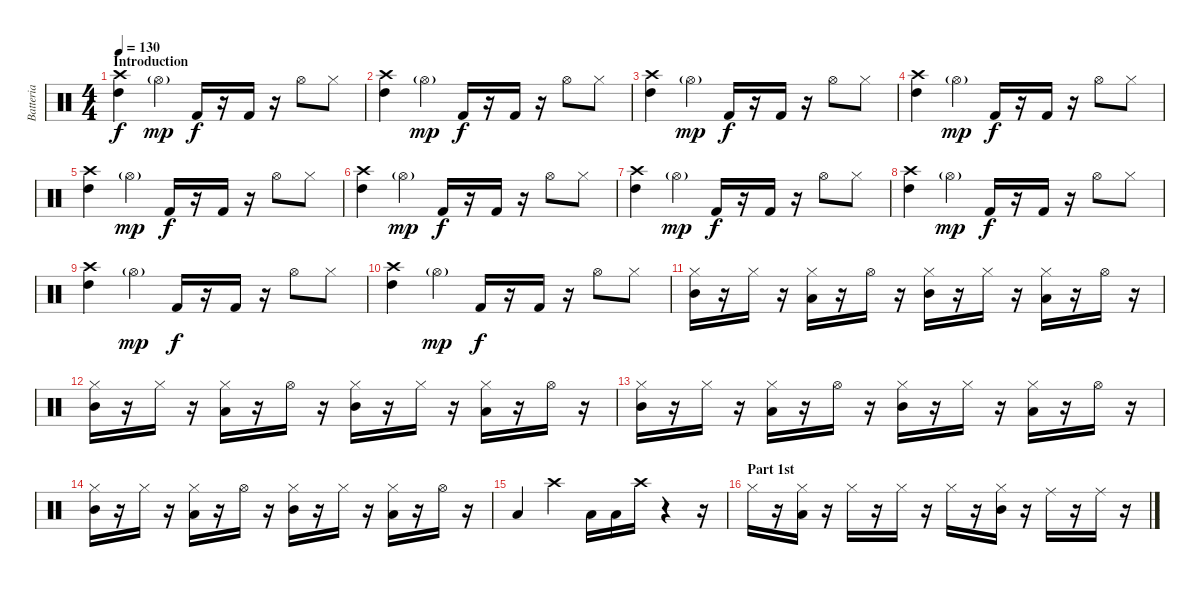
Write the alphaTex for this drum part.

\track ("Batteria" "Batteria") {instrument percussion}
\staff {score}
\articulation defaults
\ts (4 4)
\section ("" "Introduction")
\tempo 130
\clef neutral
\ks c
("Crash high (hit)" "High Tom (hit)").4{dy f} "Hi-Hat (open)"{g}.4{dy mp} "Kick (hit) 2".16{dy f} r.16 "Kick (hit) 2".16 r.16 "Hi-Hat (open)".8 "Hi-Hat (closed)".8 |
("Crash high (hit)" "High Tom (hit)").4 "Hi-Hat (open)"{g}.4{dy mp} "Kick (hit) 2".16{dy f} r.16 "Kick (hit) 2".16 r.16 "Hi-Hat (open)".8 "Hi-Hat (closed)".8 |
("Crash high (hit)" "High Tom (hit)").4 "Hi-Hat (open)"{g}.4{dy mp} "Kick (hit) 2".16{dy f} r.16 "Kick (hit) 2".16 r.16 "Hi-Hat (open)".8 "Hi-Hat (closed)".8 |
("Crash high (hit)" "High Tom (hit)").4 "Hi-Hat (open)"{g}.4{dy mp} "Kick (hit) 2".16{dy f} r.16 "Kick (hit) 2".16 r.16 "Hi-Hat (open)".8 "Hi-Hat (closed)".8 |
("Crash high (hit)" "High Tom (hit)").4 "Hi-Hat (open)"{g}.4{dy mp} "Kick (hit) 2".16{dy f} r.16 "Kick (hit) 2".16 r.16 "Hi-Hat (open)".8 "Hi-Hat (closed)".8 |
("Crash high (hit)" "High Tom (hit)").4 "Hi-Hat (open)"{g}.4{dy mp} "Kick (hit) 2".16{dy f} r.16 "Kick (hit) 2".16 r.16 "Hi-Hat (open)".8 "Hi-Hat (closed)".8 |
("Crash high (hit)" "High Tom (hit)").4 "Hi-Hat (open)"{g}.4{dy mp} "Kick (hit) 2".16{dy f} r.16 "Kick (hit) 2".16 r.16 "Hi-Hat (open)".8 "Hi-Hat (closed)".8 |
("Crash high (hit)" "High Tom (hit)").4 "Hi-Hat (open)"{g}.4{dy mp} "Kick (hit) 2".16{dy f} r.16 "Kick (hit) 2".16 r.16 "Hi-Hat (open)".8 "Hi-Hat (closed)".8 |
("Crash high (hit)" "High Tom (hit)").4 "Hi-Hat (open)"{g}.4{dy mp} "Kick (hit) 2".16{dy f} r.16 "Kick (hit) 2".16 r.16 "Hi-Hat (open)".8 "Hi-Hat (closed)".8 |
("Crash high (hit)" "High Tom (hit)").4 "Hi-Hat (open)"{g}.4{dy mp} "Kick (hit) 2".16{dy f} r.16 "Kick (hit) 2".16 r.16 "Hi-Hat (open)".8 "Hi-Hat (closed)".8 |
("Hi-Hat (closed)" "Mid Tom (hit)").16 r.16 "Hi-Hat (closed)".16 r.16 ("Hi-Hat (closed)" "Low Tom (hit)").16 r.16 "Hi-Hat (open)".16 r.16 ("Hi-Hat (closed)" "Mid Tom (hit)").16 r.16 "Hi-Hat (closed)".16 r.16 ("Hi-Hat (closed)" "Low Tom (hit)").16 r.16 "Hi-Hat (open)".16 r.16 |
("Hi-Hat (closed)" "Mid Tom (hit)").16 r.16 "Hi-Hat (closed)".16 r.16 ("Hi-Hat (closed)" "Low Tom (hit)").16 r.16 "Hi-Hat (open)".16 r.16 ("Hi-Hat (closed)" "Mid Tom (hit)").16 r.16 "Hi-Hat (closed)".16 r.16 ("Hi-Hat (closed)" "Low Tom (hit)").16 r.16 "Hi-Hat (open)".16 r.16 |
("Hi-Hat (closed)" "Mid Tom (hit)").16 r.16 "Hi-Hat (closed)".16 r.16 ("Hi-Hat (closed)" "Low Tom (hit)").16 r.16 "Hi-Hat (open)".16 r.16 ("Hi-Hat (closed)" "Mid Tom (hit)").16 r.16 "Hi-Hat (closed)".16 r.16 ("Hi-Hat (closed)" "Low Tom (hit)").16 r.16 "Hi-Hat (open)".16 r.16 |
("Hi-Hat (closed)" "Mid Tom (hit)").16 r.16 "Hi-Hat (closed)".16 r.16 ("Hi-Hat (closed)" "Low Tom (hit)").16 r.16 "Hi-Hat (open)".16 r.16 ("Hi-Hat (closed)" "Mid Tom (hit)").16 r.16 "Hi-Hat (closed)".16 r.16 ("Hi-Hat (closed)" "Low Tom (hit)").16 r.16 "Hi-Hat (open)".16 r.16 |
"Low Tom (hit)".4 "Crash high (hit)".4 "Low Tom (hit)".16 "Low Tom (hit)".16 "Crash high (hit)".16 r.4 r.16 |
\section ("" "Part 1st")
"Hi-Hat (closed)".16 r.16 ("Hi-Hat (closed)" "Low Tom (hit)").16 r.16 "Hi-Hat (closed)".16 r.16 "Hi-Hat (closed)".16 r.16 "Hi-Hat (closed)".16 r.16 ("Hi-Hat (closed)" "Mid Tom (hit)").16 r.16 "Ride (middle)".16 r.16 "Ride (middle)".16 r.16
